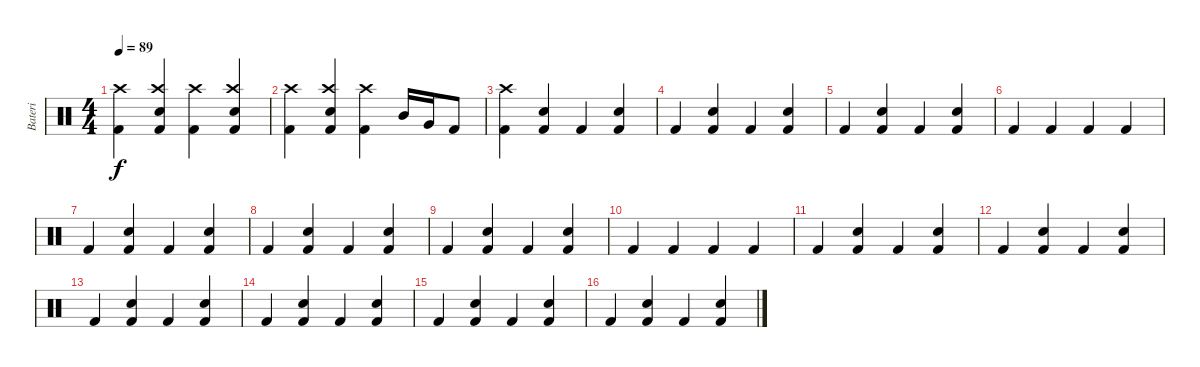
\track ("Bateri" "Bateri") {instrument percussion}
\staff {score}
\articulation defaults
\ts (4 4)
\tempo 89
\clef neutral
\ks c
("Kick (hit) 2" "Crash high (hit)").4{dy f} ("Kick (hit) 2" "Snare (hit) 2" "Crash high (hit)").4 ("Kick (hit) 2" "Crash high (hit)").4 ("Kick (hit) 2" "Snare (hit) 2" "Crash high (hit)").4 |
("Kick (hit) 2" "Crash high (hit)").4 ("Kick (hit) 2" "Snare (hit) 2" "Crash high (hit)").4 ("Kick (hit) 2" "Crash high (hit)").4 "Mid Tom (hit)".16 "Very Low Tom (hit)".16 "Kick (hit) 2".8 |
("Kick (hit) 2" "Crash high (hit)").4 ("Kick (hit) 2" "Snare (hit) 2").4 "Kick (hit) 2".4 ("Kick (hit) 2" "Snare (hit) 2").4 |
"Kick (hit) 2".4 ("Kick (hit) 2" "Snare (hit) 2").4 "Kick (hit) 2".4 ("Kick (hit) 2" "Snare (hit) 2").4 |
"Kick (hit) 2".4 ("Kick (hit) 2" "Snare (hit) 2").4 "Kick (hit) 2".4 ("Kick (hit) 2" "Snare (hit) 2").4 |
"Kick (hit) 2".4 "Kick (hit) 2".4 "Kick (hit) 2".4 "Kick (hit) 2".4 |
"Kick (hit) 2".4 ("Kick (hit) 2" "Snare (hit) 2").4 "Kick (hit) 2".4 ("Kick (hit) 2" "Snare (hit) 2").4 |
"Kick (hit) 2".4 ("Kick (hit) 2" "Snare (hit) 2").4 "Kick (hit) 2".4 ("Kick (hit) 2" "Snare (hit) 2").4 |
"Kick (hit) 2".4 ("Kick (hit) 2" "Snare (hit) 2").4 "Kick (hit) 2".4 ("Kick (hit) 2" "Snare (hit) 2").4 |
"Kick (hit) 2".4 "Kick (hit) 2".4 "Kick (hit) 2".4 "Kick (hit) 2".4 |
"Kick (hit) 2".4 ("Kick (hit) 2" "Snare (hit) 2").4 "Kick (hit) 2".4 ("Kick (hit) 2" "Snare (hit) 2").4 |
"Kick (hit) 2".4 ("Kick (hit) 2" "Snare (hit) 2").4 "Kick (hit) 2".4 ("Kick (hit) 2" "Snare (hit) 2").4 |
"Kick (hit) 2".4 ("Kick (hit) 2" "Snare (hit) 2").4 "Kick (hit) 2".4 ("Kick (hit) 2" "Snare (hit) 2").4 |
"Kick (hit) 2".4 ("Kick (hit) 2" "Snare (hit) 2").4 "Kick (hit) 2".4 ("Kick (hit) 2" "Snare (hit) 2").4 |
"Kick (hit) 2".4 ("Kick (hit) 2" "Snare (hit) 2").4 "Kick (hit) 2".4 ("Kick (hit) 2" "Snare (hit) 2").4 |
"Kick (hit) 2".4 ("Kick (hit) 2" "Snare (hit) 2").4 "Kick (hit) 2".4 ("Kick (hit) 2" "Snare (hit) 2").4
